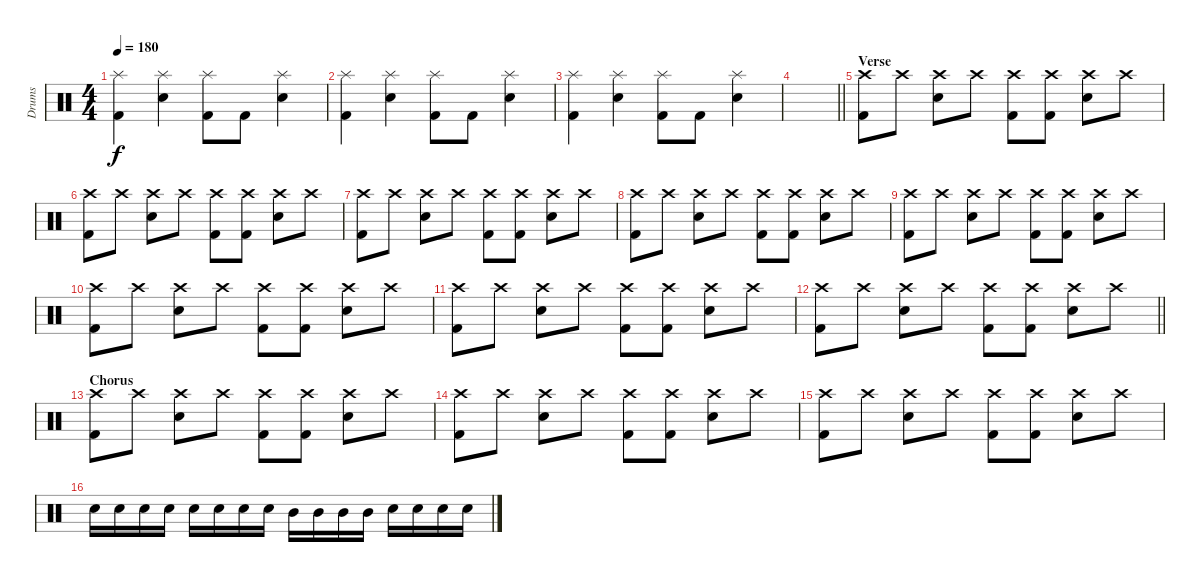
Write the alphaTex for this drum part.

\track ("Drums" "Drums") {instrument percussion}
\staff {score}
\articulation defaults
\ts (4 4)
\tempo 180
\clef neutral
\ks c
("Splash (hit)" "Kick (hit) 2").4{dy f} ("Splash (hit)" "Snare (hit) 2").4 ("Splash (hit)" "Kick (hit) 2").8 "Kick (hit) 2".8 ("Splash (hit)" "Snare (hit) 2").4 |
("Splash (hit)" "Kick (hit) 2").4 ("Splash (hit)" "Snare (hit) 2").4 ("Splash (hit)" "Kick (hit) 2").8 "Kick (hit) 2".8 ("Splash (hit)" "Snare (hit) 2").4 |
("Splash (hit)" "Kick (hit) 2").4 ("Splash (hit)" "Snare (hit) 2").4 ("Splash (hit)" "Kick (hit) 2").8 "Kick (hit) 2".8 ("Splash (hit)" "Snare (hit) 2").4 |
\barLineRight lightlight
|
\section ("" "Verse")
("Crash high (hit)" "Kick (hit) 2").8 "Crash high (hit)".8 ("Crash high (hit)" "Snare (hit) 2").8 "Crash high (hit)".8 ("Crash high (hit)" "Kick (hit) 2").8 ("Crash high (hit)" "Kick (hit) 2").8 ("Crash high (hit)" "Snare (hit) 2").8 "Crash high (hit)".8 |
("Crash high (hit)" "Kick (hit) 2").8 "Crash high (hit)".8 ("Crash high (hit)" "Snare (hit) 2").8 "Crash high (hit)".8 ("Crash high (hit)" "Kick (hit) 2").8 ("Crash high (hit)" "Kick (hit) 2").8 ("Crash high (hit)" "Snare (hit) 2").8 "Crash high (hit)".8 |
("Crash high (hit)" "Kick (hit) 2").8 "Crash high (hit)".8 ("Crash high (hit)" "Snare (hit) 2").8 "Crash high (hit)".8 ("Crash high (hit)" "Kick (hit) 2").8 ("Crash high (hit)" "Kick (hit) 2").8 ("Crash high (hit)" "Snare (hit) 2").8 "Crash high (hit)".8 |
("Crash high (hit)" "Kick (hit) 2").8 "Crash high (hit)".8 ("Crash high (hit)" "Snare (hit) 2").8 "Crash high (hit)".8 ("Crash high (hit)" "Kick (hit) 2").8 ("Crash high (hit)" "Kick (hit) 2").8 ("Crash high (hit)" "Snare (hit) 2").8 "Crash high (hit)".8 |
("Crash high (hit)" "Kick (hit) 2").8 "Crash high (hit)".8 ("Crash high (hit)" "Snare (hit) 2").8 "Crash high (hit)".8 ("Crash high (hit)" "Kick (hit) 2").8 ("Crash high (hit)" "Kick (hit) 2").8 ("Crash high (hit)" "Snare (hit) 2").8 "Crash high (hit)".8 |
("Crash high (hit)" "Kick (hit) 2").8 "Crash high (hit)".8 ("Crash high (hit)" "Snare (hit) 2").8 "Crash high (hit)".8 ("Crash high (hit)" "Kick (hit) 2").8 ("Crash high (hit)" "Kick (hit) 2").8 ("Crash high (hit)" "Snare (hit) 2").8 "Crash high (hit)".8 |
("Crash high (hit)" "Kick (hit) 2").8 "Crash high (hit)".8 ("Crash high (hit)" "Snare (hit) 2").8 "Crash high (hit)".8 ("Crash high (hit)" "Kick (hit) 2").8 ("Crash high (hit)" "Kick (hit) 2").8 ("Crash high (hit)" "Snare (hit) 2").8 "Crash high (hit)".8 |
\barLineRight lightlight
("Crash high (hit)" "Kick (hit) 2").8 "Crash high (hit)".8 ("Crash high (hit)" "Snare (hit) 2").8 "Crash high (hit)".8 ("Crash high (hit)" "Kick (hit) 2").8 ("Crash high (hit)" "Kick (hit) 2").8 ("Crash high (hit)" "Snare (hit) 2").8 "Crash high (hit)".8 |
\section ("" "Chorus")
("Crash high (hit)" "Kick (hit) 2").8 "Crash high (hit)".8 ("Crash high (hit)" "Snare (hit) 2").8 "Crash high (hit)".8 ("Crash high (hit)" "Kick (hit) 2").8 ("Crash high (hit)" "Kick (hit) 2").8 ("Crash high (hit)" "Snare (hit) 2").8 "Crash high (hit)".8 |
("Crash high (hit)" "Kick (hit) 2").8 "Crash high (hit)".8 ("Crash high (hit)" "Snare (hit) 2").8 "Crash high (hit)".8 ("Crash high (hit)" "Kick (hit) 2").8 ("Crash high (hit)" "Kick (hit) 2").8 ("Crash high (hit)" "Snare (hit) 2").8 "Crash high (hit)".8 |
("Crash high (hit)" "Kick (hit) 2").8 "Crash high (hit)".8 ("Crash high (hit)" "Snare (hit) 2").8 "Crash high (hit)".8 ("Crash high (hit)" "Kick (hit) 2").8 ("Crash high (hit)" "Kick (hit) 2").8 ("Crash high (hit)" "Snare (hit) 2").8 "Crash high (hit)".8 |
"Snare (hit) 2".16 "Snare (hit) 2".16 "Snare (hit) 2".16 "Snare (hit) 2".16 "Snare (hit) 2".16 "Snare (hit) 2".16 "Snare (hit) 2".16 "Snare (hit) 2".16 "Mid Tom (hit)".16 "Mid Tom (hit)".16 "Mid Tom (hit)".16 "Mid Tom (hit)".16 "Snare (hit) 2".16 "Snare (hit) 2".16 "Snare (hit) 2".16 "Snare (hit) 2".16
